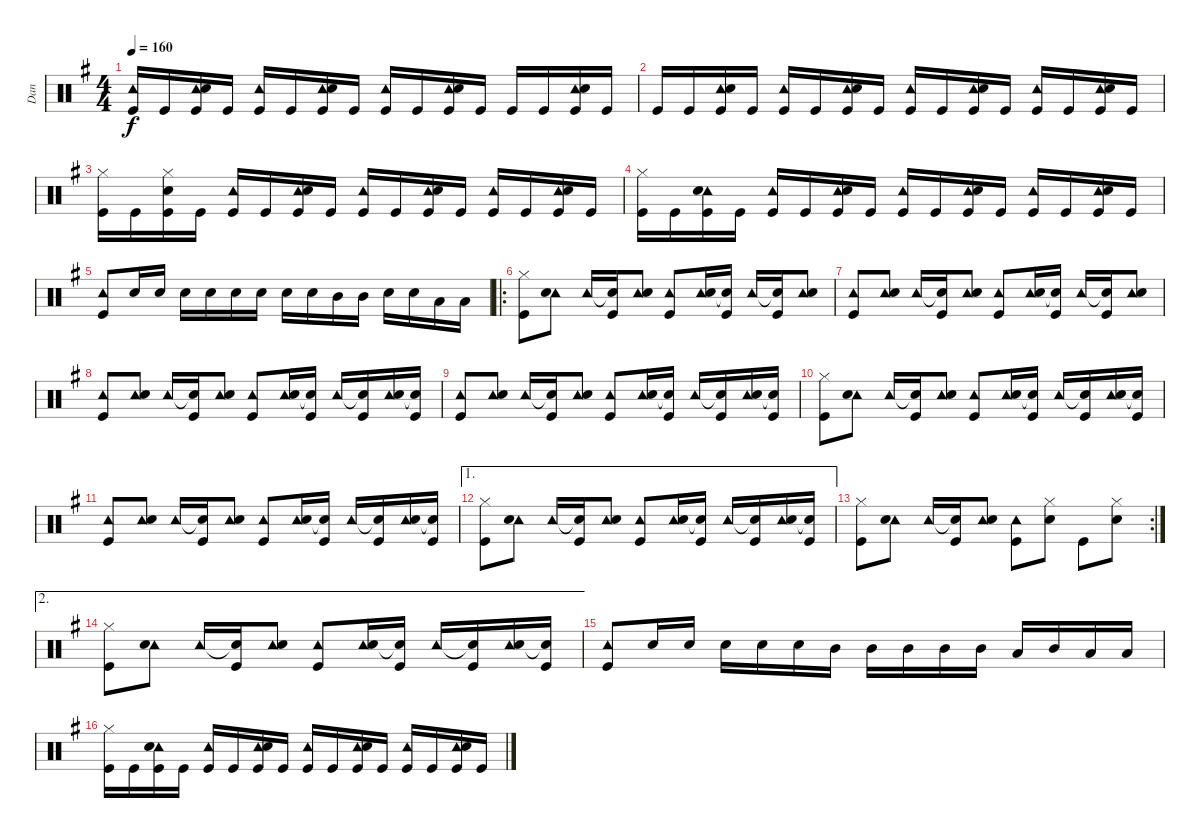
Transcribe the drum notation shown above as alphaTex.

\track ("Dan" "Dan") {instrument percussion}
\staff {score}
\articulation defaults
\ts (4 4)
\tempo 160
\clef neutral
\ks g
("Tambourine (hit)" "Kick (hit)").16{dy f} "Kick (hit)".16 ("Tambourine (hit)" "Snare (hit) 2" "Kick (hit)").16 "Kick (hit)".16 ("Tambourine (hit)" "Kick (hit)").16 "Kick (hit)".16 ("Tambourine (hit)" "Snare (hit) 2" "Kick (hit)").16 "Kick (hit)".16 ("Tambourine (hit)" "Kick (hit)").16 "Kick (hit)".16 ("Tambourine (hit)" "Snare (hit) 2" "Kick (hit)").16 "Kick (hit)".16 "Kick (hit)".16 "Kick (hit)".16 ("Tambourine (hit)" "Snare (hit) 2" "Kick (hit)").16 "Kick (hit)".16 |
"Kick (hit)".16 "Kick (hit)".16 ("Tambourine (hit)" "Snare (hit) 2" "Kick (hit)").16 "Kick (hit)".16 ("Tambourine (hit)" "Kick (hit)").16 "Kick (hit)".16 ("Tambourine (hit)" "Snare (hit) 2" "Kick (hit)").16 "Kick (hit)".16 ("Tambourine (hit)" "Kick (hit)").16 "Kick (hit)".16 ("Tambourine (hit)" "Snare (hit) 2" "Kick (hit)").16 "Kick (hit)".16 ("Tambourine (hit)" "Kick (hit)").16 "Kick (hit)".16 ("Tambourine (hit)" "Snare (hit) 2" "Kick (hit)").16 "Kick (hit)".16 |
("Hi-Hat (closed)" "Kick (hit)").16 "Kick (hit)".16 ("Hi-Hat (closed)" "Snare (hit) 2" "Kick (hit)").16 "Kick (hit)".16 ("Tambourine (hit)" "Kick (hit)").16 "Kick (hit)".16 ("Tambourine (hit)" "Snare (hit) 2" "Kick (hit)").16 "Kick (hit)".16 ("Tambourine (hit)" "Kick (hit)").16 "Kick (hit)".16 ("Tambourine (hit)" "Snare (hit) 2" "Kick (hit)").16 "Kick (hit)".16 ("Tambourine (hit)" "Kick (hit)").16 "Kick (hit)".16 ("Tambourine (hit)" "Snare (hit) 2" "Kick (hit)").16 "Kick (hit)".16 |
("Hi-Hat (closed)" "Kick (hit)").16 "Kick (hit)".16 ("Tambourine (hit)" "Snare (hit) 2" "Kick (hit)").16 "Kick (hit)".16 ("Tambourine (hit)" "Kick (hit)").16 "Kick (hit)".16 ("Tambourine (hit)" "Snare (hit) 2" "Kick (hit)").16 "Kick (hit)".16 ("Tambourine (hit)" "Kick (hit)").16 "Kick (hit)".16 ("Tambourine (hit)" "Snare (hit) 2" "Kick (hit)").16 "Kick (hit)".16 ("Tambourine (hit)" "Kick (hit)").16 "Kick (hit)".16 ("Tambourine (hit)" "Snare (hit) 2" "Kick (hit)").16 "Kick (hit)".16 |
("Tambourine (hit)" "Kick (hit)").8 "Snare (hit) 2".16 "Snare (hit) 2".16 "Snare (hit) 2".16 "Snare (hit) 2".16 "Snare (hit) 2".16 "Snare (hit) 2".16 "Snare (hit) 2".16 "Snare (hit) 2".16 "Mid Tom (hit)".16 "Mid Tom (hit)".16 "Snare (hit) 2".16 "Snare (hit) 2".16 "Low Tom (hit)".16 "Low Tom (hit)".16 |
\ro
("Hi-Hat (closed)" "Kick (hit)").8 ("Tambourine (hit)" "Snare (hit) 2").8 "Tambourine (hit)".16 ("Snare (hit)"{t} "Kick (hit)").16 ("Tambourine (hit)" "Snare (hit) 2").8 ("Tambourine (hit)" "Kick (hit)").8 ("Tambourine (hit)" "Snare (hit) 2").16 ("Snare (hit)"{t} "Kick (hit)").16 "Tambourine (hit)".16 ("Snare (hit)"{t} "Kick (hit)").16 ("Tambourine (hit)" "Snare (hit) 2").8 |
("Tambourine (hit)" "Kick (hit)").8 ("Tambourine (hit)" "Snare (hit) 2").8 "Tambourine (hit)".16 ("Snare (hit)"{t} "Kick (hit)").16 ("Tambourine (hit)" "Snare (hit) 2").8 ("Tambourine (hit)" "Kick (hit)").8 ("Tambourine (hit)" "Snare (hit) 2").16 ("Snare (hit)"{t} "Kick (hit)").16 "Tambourine (hit)".16 ("Snare (hit)"{t} "Kick (hit)").16 ("Tambourine (hit)" "Snare (hit) 2").8 |
("Tambourine (hit)" "Kick (hit)").8 ("Tambourine (hit)" "Snare (hit) 2").8 "Tambourine (hit)".16 ("Snare (hit)"{t} "Kick (hit)").16 ("Tambourine (hit)" "Snare (hit) 2").8 ("Tambourine (hit)" "Kick (hit)").8 ("Tambourine (hit)" "Snare (hit) 2").16 ("Snare (hit)"{t} "Kick (hit)").16 "Tambourine (hit)".16 ("Snare (hit)"{t} "Kick (hit)").16 ("Tambourine (hit)" "Snare (hit) 2").16 ("Snare (hit)"{t} "Kick (hit)").16 |
("Tambourine (hit)" "Kick (hit)").8 ("Tambourine (hit)" "Snare (hit) 2").8 "Tambourine (hit)".16 ("Snare (hit)"{t} "Kick (hit)").16 ("Tambourine (hit)" "Snare (hit) 2").8 ("Tambourine (hit)" "Kick (hit)").8 ("Tambourine (hit)" "Snare (hit) 2").16 ("Snare (hit)"{t} "Kick (hit)").16 "Tambourine (hit)".16 ("Snare (hit)"{t} "Kick (hit)").16 ("Tambourine (hit)" "Snare (hit) 2").16 ("Snare (hit)"{t} "Kick (hit)").16 |
("Hi-Hat (closed)" "Kick (hit)").8 ("Tambourine (hit)" "Snare (hit) 2").8 "Tambourine (hit)".16 ("Snare (hit)"{t} "Kick (hit)").16 ("Tambourine (hit)" "Snare (hit) 2").8 ("Tambourine (hit)" "Kick (hit)").8 ("Tambourine (hit)" "Snare (hit) 2").16 ("Snare (hit)"{t} "Kick (hit)").16 "Tambourine (hit)".16 ("Snare (hit)"{t} "Kick (hit)").16 ("Tambourine (hit)" "Snare (hit) 2").16 ("Snare (hit)"{t} "Kick (hit)").16 |
("Tambourine (hit)" "Kick (hit)").8 ("Tambourine (hit)" "Snare (hit) 2").8 "Tambourine (hit)".16 ("Snare (hit)"{t} "Kick (hit)").16 ("Tambourine (hit)" "Snare (hit) 2").8 ("Tambourine (hit)" "Kick (hit)").8 ("Tambourine (hit)" "Snare (hit) 2").16 ("Snare (hit)"{t} "Kick (hit)").16 "Tambourine (hit)".16 ("Snare (hit)"{t} "Kick (hit)").16 ("Tambourine (hit)" "Snare (hit) 2").16 ("Snare (hit)"{t} "Kick (hit)").16 |
\ae 1
("Hi-Hat (closed)" "Kick (hit)").8 ("Tambourine (hit)" "Snare (hit) 2").8 "Tambourine (hit)".16 ("Snare (hit)"{t} "Kick (hit)").16 ("Tambourine (hit)" "Snare (hit) 2").8 ("Tambourine (hit)" "Kick (hit)").8 ("Tambourine (hit)" "Snare (hit) 2").16 ("Snare (hit)"{t} "Kick (hit)").16 "Tambourine (hit)".16 ("Snare (hit)"{t} "Kick (hit)").16 ("Tambourine (hit)" "Snare (hit) 2").16 ("Snare (hit)"{t} "Kick (hit)").16 |
\rc 2
("Hi-Hat (closed)" "Kick (hit)").8 ("Tambourine (hit)" "Snare (hit) 2").8 "Tambourine (hit)".16 ("Snare (hit)"{t} "Kick (hit)").16 ("Tambourine (hit)" "Snare (hit) 2").8 ("Tambourine (hit)" "Kick (hit)").8 ("Hi-Hat (closed)" "Snare (hit) 2").8 "Kick (hit)".8 ("Hi-Hat (closed)" "Snare (hit) 2").8 |
\ae 2
("Hi-Hat (closed)" "Kick (hit)").8 ("Tambourine (hit)" "Snare (hit) 2").8 "Tambourine (hit)".16 ("Snare (hit)"{t} "Kick (hit)").16 ("Tambourine (hit)" "Snare (hit) 2").8 ("Tambourine (hit)" "Kick (hit)").8 ("Tambourine (hit)" "Snare (hit) 2").16 ("Snare (hit)"{t} "Kick (hit)").16 "Tambourine (hit)".16 ("Snare (hit)"{t} "Kick (hit)").16 ("Tambourine (hit)" "Snare (hit) 2").16 ("Snare (hit)"{t} "Kick (hit)").16 |
("Tambourine (hit)" "Kick (hit)").8 "Snare (hit) 2".16 "Snare (hit) 2".16 "Snare (hit) 2".16 "Snare (hit) 2".16 "Snare (hit) 2".16 "Mid Tom (hit)".16 "Mid Tom (hit)".16 "Mid Tom (hit)".16 "Mid Tom (hit)".16 "Mid Tom (hit)".16 "Low Tom (hit)".16 "Mid Tom (hit)".16 "Low Tom (hit)".16 "Low Tom (hit)".16 |
("Hi-Hat (closed)" "Kick (hit)").16 "Kick (hit)".16 ("Tambourine (hit)" "Snare (hit) 2" "Kick (hit)").16 "Kick (hit)".16 ("Tambourine (hit)" "Kick (hit)").16 "Kick (hit)".16 ("Tambourine (hit)" "Snare (hit) 2" "Kick (hit)").16 "Kick (hit)".16 ("Tambourine (hit)" "Kick (hit)").16 "Kick (hit)".16 ("Tambourine (hit)" "Snare (hit) 2" "Kick (hit)").16 "Kick (hit)".16 ("Tambourine (hit)" "Kick (hit)").16 "Kick (hit)".16 ("Tambourine (hit)" "Snare (hit) 2" "Kick (hit)").16 "Kick (hit)".16
